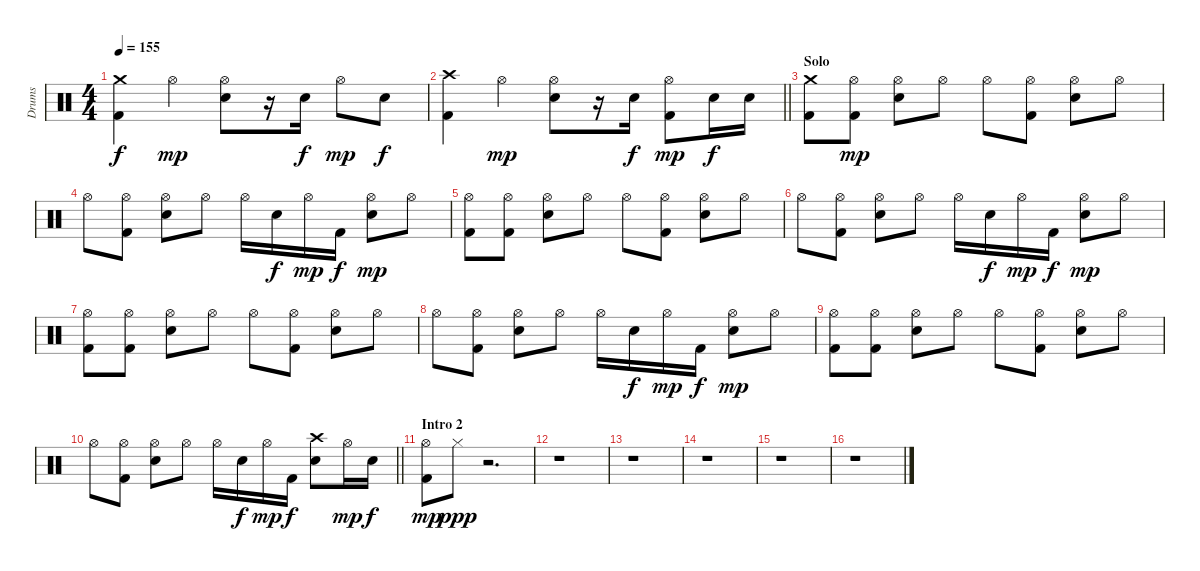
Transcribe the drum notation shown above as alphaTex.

\track ("Drums" "Drums") {instrument percussion}
\staff {score}
\articulation defaults
\ts (4 4)
\tempo 155
\clef neutral
\ks c
("Crash medium (hit)" "Kick (hit) 2").4{dy f} "Hi-Hat (open)".4{dy mp} ("Hi-Hat (open)" "Snare (hit) 2").8 r.16 "Snare (hit) 2".16{dy f} "Hi-Hat (open)".8{dy mp} "Snare (hit) 2".8{dy f} |
\barLineRight lightlight
("Crash high (hit)" "Kick (hit) 2").4 "Hi-Hat (open)".4{dy mp} ("Hi-Hat (open)" "Snare (hit) 2").8 r.16 "Snare (hit) 2".16{dy f} ("Hi-Hat (open)" "Kick (hit) 2").8{dy mp} "Snare (hit) 2".16{dy f} "Snare (hit) 2".16 |
\section ("" "Solo")
("Crash medium (hit)" "Kick (hit) 2").8 ("Hi-Hat (open)" "Kick (hit) 2").8{dy mp} ("Hi-Hat (open)" "Snare (hit) 2").8 "Hi-Hat (open)".8 "Hi-Hat (open)".8 ("Hi-Hat (open)" "Kick (hit) 2").8 ("Hi-Hat (open)" "Snare (hit) 2").8 "Hi-Hat (open)".8 |
"Hi-Hat (open)".8 ("Hi-Hat (open)" "Kick (hit) 2").8 ("Hi-Hat (open)" "Snare (hit) 2").8 "Hi-Hat (open)".8 "Hi-Hat (open)".16 "Snare (hit) 2".16{dy f} "Hi-Hat (open)".16{dy mp} "Kick (hit) 2".16{dy f} ("Hi-Hat (open)" "Snare (hit) 2").8{dy mp} "Hi-Hat (open)".8 |
("Hi-Hat (open)" "Kick (hit) 2").8 ("Hi-Hat (open)" "Kick (hit) 2").8 ("Hi-Hat (open)" "Snare (hit) 2").8 "Hi-Hat (open)".8 "Hi-Hat (open)".8 ("Hi-Hat (open)" "Kick (hit) 2").8 ("Hi-Hat (open)" "Snare (hit) 2").8 "Hi-Hat (open)".8 |
"Hi-Hat (open)".8 ("Hi-Hat (open)" "Kick (hit) 2").8 ("Hi-Hat (open)" "Snare (hit) 2").8 "Hi-Hat (open)".8 "Hi-Hat (open)".16 "Snare (hit) 2".16{dy f} "Hi-Hat (open)".16{dy mp} "Kick (hit) 2".16{dy f} ("Hi-Hat (open)" "Snare (hit) 2").8{dy mp} "Hi-Hat (open)".8 |
("Hi-Hat (open)" "Kick (hit) 2").8 ("Hi-Hat (open)" "Kick (hit) 2").8 ("Hi-Hat (open)" "Snare (hit) 2").8 "Hi-Hat (open)".8 "Hi-Hat (open)".8 ("Hi-Hat (open)" "Kick (hit) 2").8 ("Hi-Hat (open)" "Snare (hit) 2").8 "Hi-Hat (open)".8 |
"Hi-Hat (open)".8 ("Hi-Hat (open)" "Kick (hit) 2").8 ("Hi-Hat (open)" "Snare (hit) 2").8 "Hi-Hat (open)".8 "Hi-Hat (open)".16 "Snare (hit) 2".16{dy f} "Hi-Hat (open)".16{dy mp} "Kick (hit) 2".16{dy f} ("Hi-Hat (open)" "Snare (hit) 2").8{dy mp} "Hi-Hat (open)".8 |
("Hi-Hat (open)" "Kick (hit) 2").8 ("Hi-Hat (open)" "Kick (hit) 2").8 ("Hi-Hat (open)" "Snare (hit) 2").8 "Hi-Hat (open)".8 "Hi-Hat (open)".8 ("Hi-Hat (open)" "Kick (hit) 2").8 ("Hi-Hat (open)" "Snare (hit) 2").8 "Hi-Hat (open)".8 |
\barLineRight lightlight "Hi-Hat (open)".8
("Hi-Hat (open)" "Kick (hit) 2").8 ("Hi-Hat (open)" "Snare (hit) 2").8 "Hi-Hat (open)".8 "Hi-Hat (open)".16 "Snare (hit) 2".16{dy f} "Hi-Hat (open)".16{dy mp} "Kick (hit) 2".16{dy f} ("Crash high (hit)" "Snare (hit) 2").8 "Hi-Hat (open)".16{dy mp} "Snare (hit) 2".16{dy f} |
\section ("" "Intro 2")
("Hi-Hat (open)" "Kick (hit) 2").8{dy mp} "Hi-Hat (closed)".8{dy ppp} r.2{d} |
r.1 |
r.1 |
r.1 |
r.1 |
r.1
